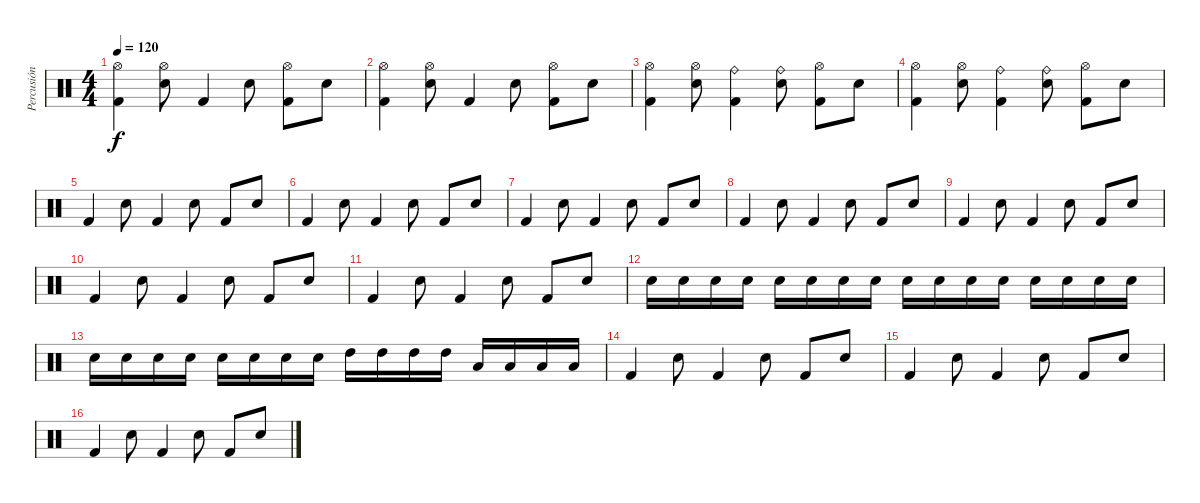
\track ("Percusión" "Percusión") {instrument percussion}
\staff {score}
\articulation defaults
\ts (4 4)
\tempo 120
\clef neutral
\ks c
("Kick (hit) 2" "Hi-Hat (open)").4{dy f} ("Snare (hit) 2" "Hi-Hat (open)").8 "Kick (hit) 2".4 "Electric Snare (hit)".8 ("Kick (hit) 2" "Hi-Hat (open)").8 "Snare (hit) 2".8 |
("Kick (hit) 2" "Hi-Hat (open)").4 ("Snare (hit) 2" "Hi-Hat (open)").8 "Kick (hit) 2".4 "Electric Snare (hit)".8 ("Kick (hit) 2" "Hi-Hat (open)").8 "Snare (hit) 2".8 |
("Kick (hit) 2" "Hi-Hat (open)").4 ("Snare (hit) 2" "Hi-Hat (open)").8 ("Kick (hit) 2" "Ride (bell)").4 ("Electric Snare (hit)" "Ride (bell)").8 ("Kick (hit) 2" "Hi-Hat (open)").8 "Snare (hit) 2".8 |
("Kick (hit) 2" "Hi-Hat (open)").4 ("Snare (hit) 2" "Hi-Hat (open)").8 ("Kick (hit) 2" "Ride (bell)").4 ("Electric Snare (hit)" "Ride (bell)").8 ("Kick (hit) 2" "Hi-Hat (open)").8 "Snare (hit) 2".8 |
"Kick (hit) 2".4 "Snare (hit) 2".8 "Kick (hit) 2".4 "Electric Snare (hit)".8 "Kick (hit) 2".8 "Snare (hit) 2".8 |
"Kick (hit) 2".4 "Snare (hit) 2".8 "Kick (hit) 2".4 "Electric Snare (hit)".8 "Kick (hit) 2".8 "Snare (hit) 2".8 |
"Kick (hit) 2".4 "Snare (hit) 2".8 "Kick (hit) 2".4 "Electric Snare (hit)".8 "Kick (hit) 2".8 "Snare (hit) 2".8 |
"Kick (hit) 2".4 "Snare (hit) 2".8 "Kick (hit) 2".4 "Electric Snare (hit)".8 "Kick (hit) 2".8 "Snare (hit) 2".8 |
"Kick (hit) 2".4 "Snare (hit) 2".8 "Kick (hit) 2".4 "Electric Snare (hit)".8 "Kick (hit) 2".8 "Snare (hit) 2".8 |
"Kick (hit) 2".4 "Snare (hit) 2".8 "Kick (hit) 2".4 "Electric Snare (hit)".8 "Kick (hit) 2".8 "Snare (hit) 2".8 |
"Kick (hit) 2".4 "Snare (hit) 2".8 "Kick (hit) 2".4 "Electric Snare (hit)".8 "Kick (hit) 2".8 "Snare (hit) 2".8 |
"Snare (hit) 2".16 "Snare (hit) 2".16 "Snare (hit) 2".16 "Snare (hit) 2".16 "Snare (hit) 2".16 "Snare (hit) 2".16 "Snare (hit) 2".16 "Snare (hit) 2".16 "Electric Snare (hit)".16 "Electric Snare (hit)".16 "Electric Snare (hit)".16 "Electric Snare (hit)".16 "Electric Snare (hit)".16 "Electric Snare (hit)".16 "Electric Snare (hit)".16 "Electric Snare (hit)".16 |
"Electric Snare (hit)".16 "Electric Snare (hit)".16 "Electric Snare (hit)".16 "Electric Snare (hit)".16 "Electric Snare (hit)".16 "Electric Snare (hit)".16 "Electric Snare (hit)".16 "Electric Snare (hit)".16 "High Tom (hit)".16 "High Tom (hit)".16 "High Tom (hit)".16 "High Tom (hit)".16 "Low Tom (hit)".16 "Low Tom (hit)".16 "Low Tom (hit)".16 "Low Tom (hit)".16 |
"Kick (hit) 2".4 "Snare (hit) 2".8 "Kick (hit) 2".4 "Electric Snare (hit)".8 "Kick (hit) 2".8 "Snare (hit) 2".8 |
"Kick (hit) 2".4 "Snare (hit) 2".8 "Kick (hit) 2".4 "Electric Snare (hit)".8 "Kick (hit) 2".8 "Snare (hit) 2".8 |
"Kick (hit) 2".4 "Snare (hit) 2".8 "Kick (hit) 2".4 "Electric Snare (hit)".8 "Kick (hit) 2".8 "Snare (hit) 2".8
